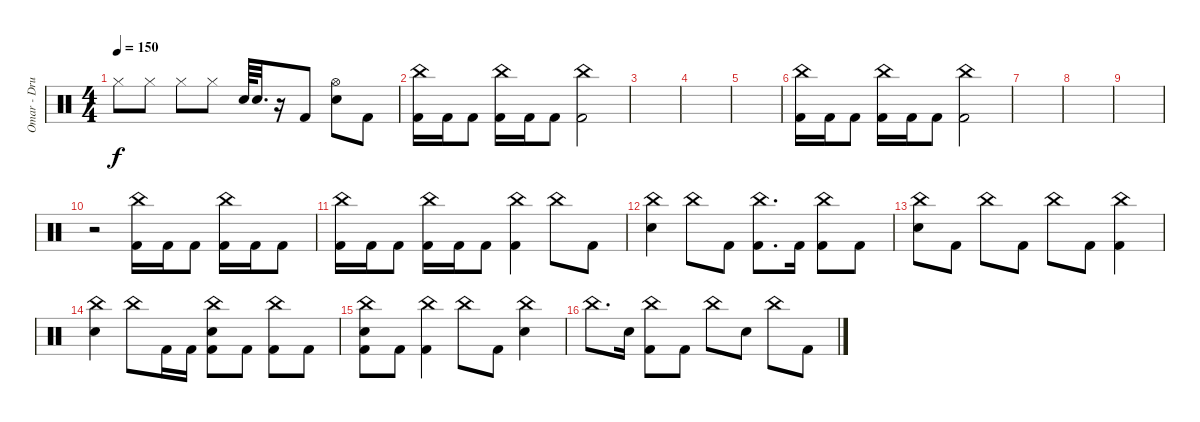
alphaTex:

\track ("Omar - Drums" "Omar - Dru") {instrument percussion}
\staff {score}
\articulation defaults
\ts (4 4)
\tempo 150
\clef neutral
\ks c "Hi-Hat (closed)".8{dy f} "Hi-Hat (closed)".8 "Hi-Hat (closed)".8 "Hi-Hat (closed)".8 "Electric Snare (hit)".64 "Electric Snare (hit)".32{d}
r.16 "Kick (hit) 2".8 ("Hi-Hat (open)" "Electric Snare (hit)").8 "Kick (hit) 2".8 |
("China (hit)" "Kick (hit) 2").16 "Kick (hit) 2".16 "Kick (hit) 2".8 ("China (hit)" "Kick (hit) 2").16 "Kick (hit) 2".16 "Kick (hit) 2".8 ("China (hit)" "Kick (hit) 2").2 |
|
|
|
("China (hit)" "Kick (hit) 2").16 "Kick (hit) 2".16 "Kick (hit) 2".8 ("China (hit)" "Kick (hit) 2").16 "Kick (hit) 2".16 "Kick (hit) 2".8 ("China (hit)" "Kick (hit) 2").2 |
|
|
|
r.2 ("China (hit)" "Kick (hit) 2").16 "Kick (hit) 2".16 "Kick (hit) 2".8 ("China (hit)" "Kick (hit) 2").16 "Kick (hit) 2".16 "Kick (hit) 2".8 |
("China (hit)" "Kick (hit) 2").16 "Kick (hit) 2".16 "Kick (hit) 2".8 ("China (hit)" "Kick (hit) 2").16 "Kick (hit) 2".16 "Kick (hit) 2".8 ("China (hit)" "Kick (hit) 2").4 "China (hit)".8 "Kick (hit) 2".8 |
("China (hit)" "Electric Snare (hit)").4 "China (hit)".8 "Kick (hit) 2".8 ("China (hit)" "Kick (hit) 2").8{d} "Kick (hit) 2".16 ("China (hit)" "Kick (hit) 2").8 "Kick (hit) 2".8 |
("China (hit)" "Electric Snare (hit)").8 "Kick (hit) 2".8 "China (hit)".8 "Kick (hit) 2".8 "China (hit)".8 "Kick (hit) 2".8 ("China (hit)" "Kick (hit) 2").4 |
("China (hit)" "Electric Snare (hit)").4 "China (hit)".8 "Kick (hit) 2".16 "Kick (hit) 2".16 ("China (hit)" "Electric Snare (hit)" "Kick (hit) 2").8 "Kick (hit) 2".8 ("China (hit)" "Kick (hit) 2").8 "Kick (hit) 2".8 |
("China (hit)" "Electric Snare (hit)" "Kick (hit) 2").8 "Kick (hit) 2".8 ("China (hit)" "Kick (hit) 2").4 "China (hit)".8 "Kick (hit) 2".8 ("China (hit)" "Electric Snare (hit)").4 |
"China (hit)".8{d} "Electric Snare (hit)".16 ("China (hit)" "Kick (hit) 2").8 "Kick (hit) 2".8 "China (hit)".8 "Electric Snare (hit)".8 "China (hit)".8 "Kick (hit) 2".8
